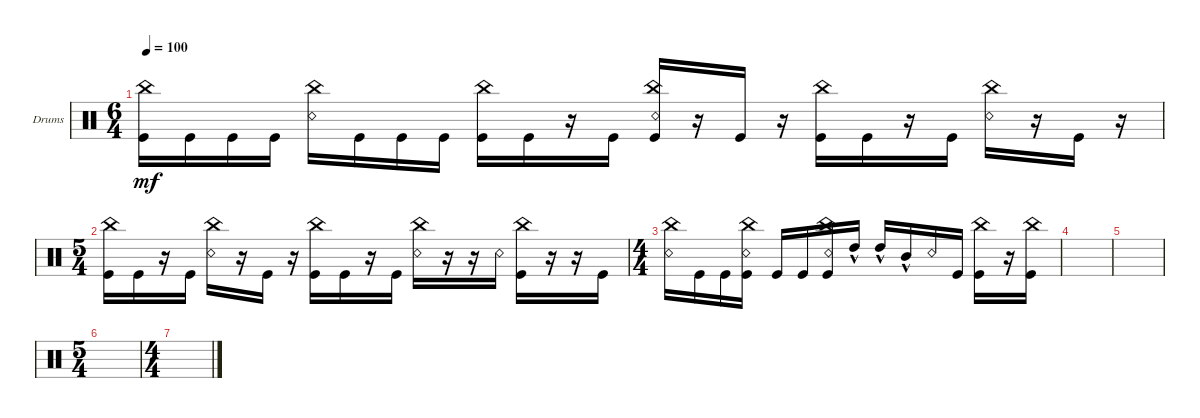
\defaultSystemsLayout 4
\bracketExtendMode groupsimilarinstruments
\firstSystemTrackNameOrientation horizontal
\otherSystemsTrackNameOrientation horizontal
\track ("Drumkit" "Drums") {solo instrument percussion}
\staff {score}
\articulation defaults
\ts (6 4)
\tempo 100
\clef neutral
\ks c
("Kick (hit)" "China (hit)").16{dy mf} "Kick (hit)".16 "Kick (hit)".16 "Kick (hit)".16 ("Snare (rim shot)" "China (hit)").16 "Kick (hit)".16 "Kick (hit)".16 "Kick (hit)".16 ("Kick (hit)" "China (hit)").16 "Kick (hit)".16 r.16 "Kick (hit)".16 ("Kick (hit)" "Snare (rim shot)" "China (hit)").16 r.16 "Kick (hit)".16 r.16 ("Kick (hit)" "China (hit)").16 "Kick (hit)".16 r.16 "Kick (hit)".16 ("Snare (rim shot)" "China (hit)").16 r.16 "Kick (hit)".16 r.16 |
\ts (5 4)
("Kick (hit)" "China (hit)").16 "Kick (hit)".16 r.16 "Kick (hit)".16 ("Snare (rim shot)" "China (hit)").16 r.16 "Kick (hit)".16 r.16 ("Kick (hit)" "China (hit)").16 "Kick (hit)".16 r.16 "Kick (hit)".16 ("China (hit)" "Snare (rim shot)").16 r.16 r.16 "Snare (rim shot)".16 ("China (hit)" "Kick (hit)").16 r.16 r.16 "Kick (hit)".16 |
\ts (4 4)
("China (hit)" "Snare (rim shot)").16 "Kick (hit)".16 "Kick (hit)".16 ("Kick (hit)" "Snare (rim shot)" "China (hit)").16 "Kick (hit)".16 "Kick (hit)".16 ("Kick (hit)" "China (hit)" "Snare (rim shot)").16 "High Tom (hit)"{hac}.16 "High Tom (hit)"{hac}.16 "Mid Tom (hit)"{hac}.16 "Snare (rim shot)".16 "Kick (hit)".16 ("China (hit)" "Kick (hit)").16 r.16 ("China (hit)" "Kick (hit)").16 |
|
|
\ts (5 4)
|
\ts (4 4)
